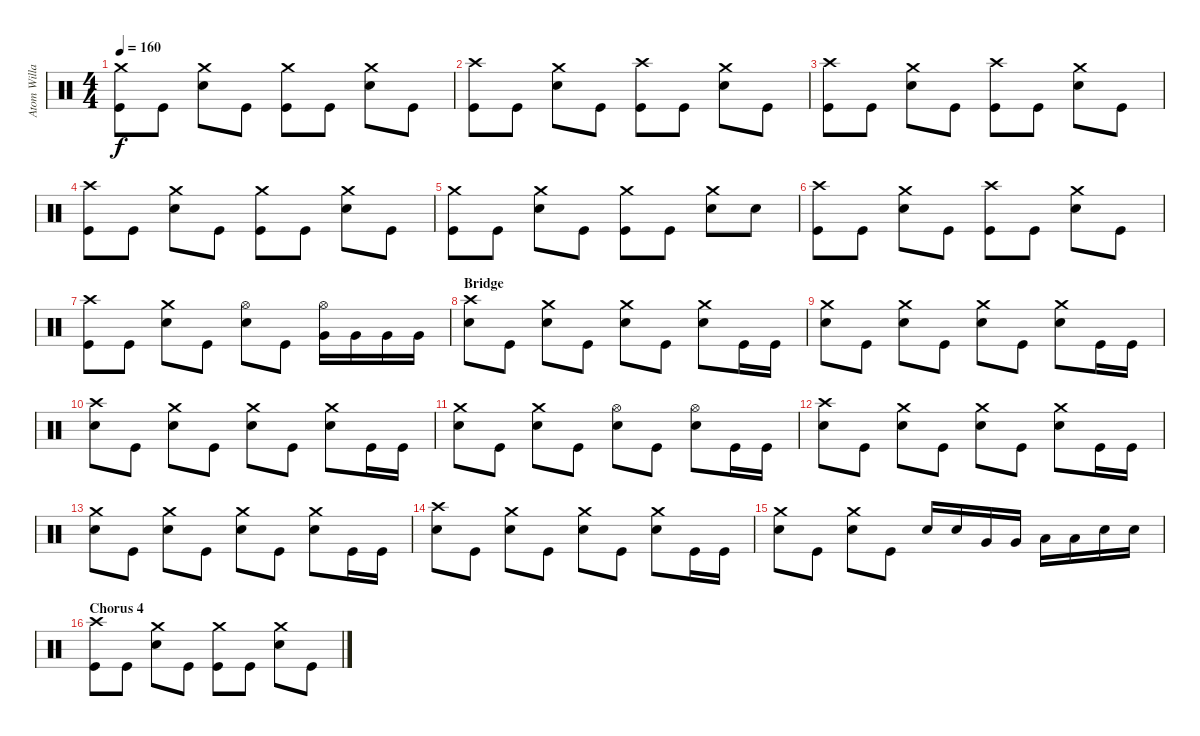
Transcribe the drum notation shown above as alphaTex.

\track ("Atom Willard - Drums" "Atom Willa") {instrument percussion}
\staff {score}
\articulation defaults
\ts (4 4)
\tempo 160
\clef neutral
\ks c
("Crash medium (hit)" "Kick (hit)").8{dy f} "Kick (hit)".8 ("Crash medium (hit)" "Electric Snare (hit)").8 "Kick (hit)".8 ("Crash medium (hit)" "Kick (hit)").8 "Kick (hit)".8 ("Crash medium (hit)" "Electric Snare (hit)").8 "Kick (hit)".8 |
("Crash high (hit)" "Kick (hit)").8 "Kick (hit)".8 ("Crash medium (hit)" "Electric Snare (hit)").8 "Kick (hit)".8 ("Crash high (hit)" "Kick (hit)").8 "Kick (hit)".8 ("Crash medium (hit)" "Electric Snare (hit)").8 "Kick (hit)".8 |
("Crash high (hit)" "Kick (hit)").8 "Kick (hit)".8 ("Crash medium (hit)" "Electric Snare (hit)").8 "Kick (hit)".8 ("Crash high (hit)" "Kick (hit)").8 "Kick (hit)".8 ("Crash medium (hit)" "Electric Snare (hit)").8 "Kick (hit)".8 |
("Crash high (hit)" "Kick (hit)").8 "Kick (hit)".8 ("Crash medium (hit)" "Electric Snare (hit)").8 "Kick (hit)".8 ("Crash medium (hit)" "Kick (hit)").8 "Kick (hit)".8 ("Crash medium (hit)" "Electric Snare (hit)").8 "Kick (hit)".8 |
("Crash medium (hit)" "Kick (hit)").8 "Kick (hit)".8 ("Crash medium (hit)" "Electric Snare (hit)").8 "Kick (hit)".8 ("Crash medium (hit)" "Kick (hit)").8 "Kick (hit)".8 ("Crash medium (hit)" "Electric Snare (hit)").8 "Electric Snare (hit)".8 |
("Crash high (hit)" "Kick (hit)").8 "Kick (hit)".8 ("Crash medium (hit)" "Electric Snare (hit)").8 "Kick (hit)".8 ("Crash high (hit)" "Kick (hit)").8 "Kick (hit)".8 ("Crash medium (hit)" "Electric Snare (hit)").8 "Kick (hit)".8 |
("Crash high (hit)" "Kick (hit)").8 "Kick (hit)".8 ("Crash medium (hit)" "Electric Snare (hit)").8 "Kick (hit)".8 ("Hi-Hat (open)" "Electric Snare (hit)").8 "Kick (hit)".8 ("Hi-Hat (open)" "Very Low Tom (hit)").16 "Very Low Tom (hit)".16 "Very Low Tom (hit)".16 "Very Low Tom (hit)".16 |
\section ("" "Bridge")
("Crash high (hit)" "Electric Snare (hit)").8 "Kick (hit)".8 ("Crash medium (hit)" "Electric Snare (hit)").8 "Kick (hit)".8 ("Crash medium (hit)" "Electric Snare (hit)").8 "Kick (hit)".8 ("Crash medium (hit)" "Electric Snare (hit)").8 "Kick (hit)".16 "Kick (hit)".16 |
("Crash medium (hit)" "Electric Snare (hit)").8 "Kick (hit)".8 ("Crash medium (hit)" "Electric Snare (hit)").8 "Kick (hit)".8 ("Crash medium (hit)" "Electric Snare (hit)").8 "Kick (hit)".8 ("Crash medium (hit)" "Electric Snare (hit)").8 "Kick (hit)".16 "Kick (hit)".16 |
("Crash high (hit)" "Electric Snare (hit)").8 "Kick (hit)".8 ("Crash medium (hit)" "Electric Snare (hit)").8 "Kick (hit)".8 ("Crash medium (hit)" "Electric Snare (hit)").8 "Kick (hit)".8 ("Crash medium (hit)" "Electric Snare (hit)").8 "Kick (hit)".16 "Kick (hit)".16 |
("Crash medium (hit)" "Electric Snare (hit)").8 "Kick (hit)".8 ("Crash medium (hit)" "Electric Snare (hit)").8 "Kick (hit)".8 ("Hi-Hat (open)" "Electric Snare (hit)").8 "Kick (hit)".8 ("Hi-Hat (open)" "Electric Snare (hit)").8 "Kick (hit)".16 "Kick (hit)".16 |
("Crash high (hit)" "Electric Snare (hit)").8 "Kick (hit)".8 ("Crash medium (hit)" "Electric Snare (hit)").8 "Kick (hit)".8 ("Crash medium (hit)" "Electric Snare (hit)").8 "Kick (hit)".8 ("Crash medium (hit)" "Electric Snare (hit)").8 "Kick (hit)".16 "Kick (hit)".16 |
("Crash medium (hit)" "Electric Snare (hit)").8 "Kick (hit)".8 ("Crash medium (hit)" "Electric Snare (hit)").8 "Kick (hit)".8 ("Crash medium (hit)" "Electric Snare (hit)").8 "Kick (hit)".8 ("Crash medium (hit)" "Electric Snare (hit)").8 "Kick (hit)".16 "Kick (hit)".16 |
("Crash high (hit)" "Electric Snare (hit)").8 "Kick (hit)".8 ("Crash medium (hit)" "Electric Snare (hit)").8 "Kick (hit)".8 ("Crash medium (hit)" "Electric Snare (hit)").8 "Kick (hit)".8 ("Crash medium (hit)" "Electric Snare (hit)").8 "Kick (hit)".16 "Kick (hit)".16 |
("Crash medium (hit)" "Electric Snare (hit)").8 "Kick (hit)".8 ("Crash medium (hit)" "Electric Snare (hit)").8 "Kick (hit)".8 "Electric Snare (hit)".16 "Electric Snare (hit)".16 "Very Low Tom (hit)".16 "Very Low Tom (hit)".16 "Low Floor Tom (hit)".16 "Low Floor Tom (hit)".16 "Electric Snare (hit)".16 "Electric Snare (hit)".16 |
\section ("" "Chorus 4")
("Crash high (hit)" "Kick (hit)").8 "Kick (hit)".8 ("Crash medium (hit)" "Electric Snare (hit)").8 "Kick (hit)".8 ("Crash medium (hit)" "Kick (hit)").8 "Kick (hit)".8 ("Crash medium (hit)" "Electric Snare (hit)").8 "Kick (hit)".8
